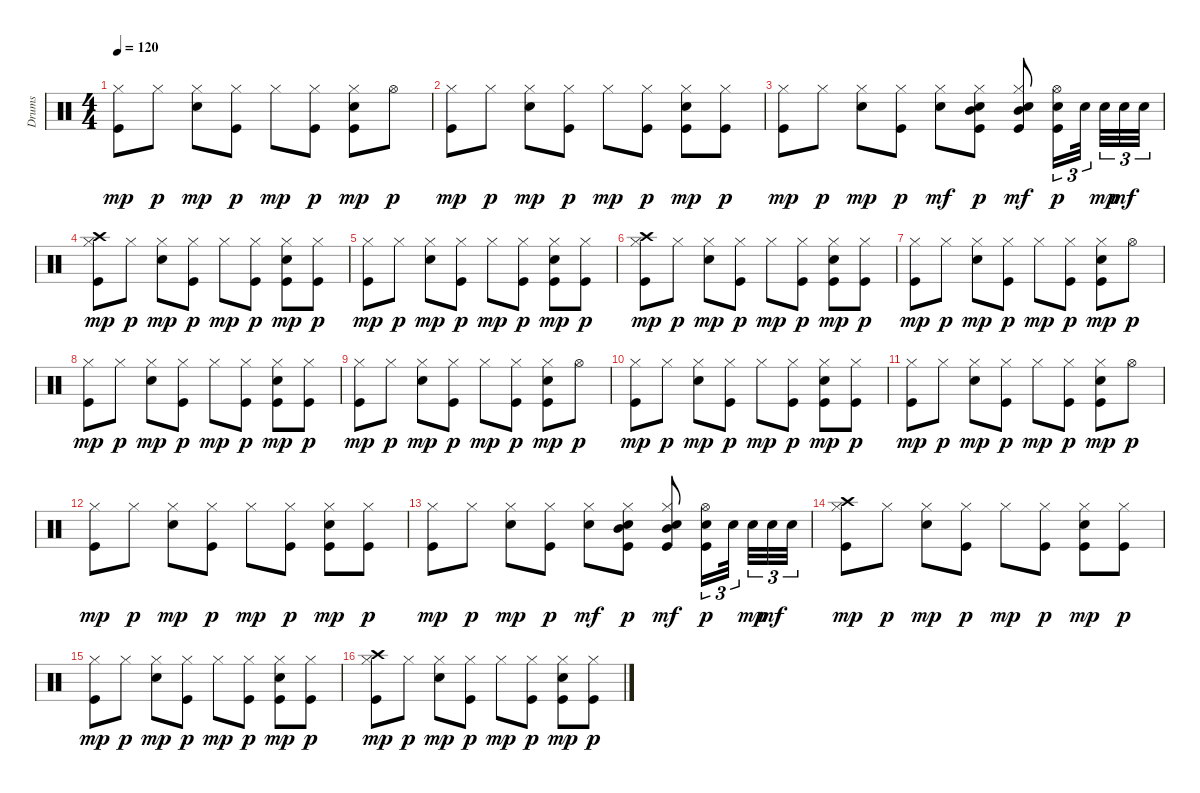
\track ("Drums" "Drums") {instrument percussion}
\staff {score}
\articulation defaults
\ts (4 4)
\tempo 120
\clef neutral
\ks c
("Kick (hit)" "Hi-Hat (closed)").8{dy mp} "Hi-Hat (closed)".8{dy p} ("Electric Snare (hit)" "Hi-Hat (closed)").8{dy mp} ("Kick (hit)" "Hi-Hat (closed)").8{dy p} "Hi-Hat (closed)".8{dy mp} ("Kick (hit)" "Hi-Hat (closed)").8{dy p} ("Kick (hit)" "Electric Snare (hit)" "Hi-Hat (closed)").8{dy mp} "Hi-Hat (open)".8{dy p} |
("Kick (hit)" "Hi-Hat (closed)").8{dy mp} "Hi-Hat (closed)".8{dy p} ("Electric Snare (hit)" "Hi-Hat (closed)").8{dy mp} ("Kick (hit)" "Hi-Hat (closed)").8{dy p} "Hi-Hat (closed)".8{dy mp} ("Kick (hit)" "Hi-Hat (closed)").8{dy p} ("Kick (hit)" "Electric Snare (hit)" "Hi-Hat (closed)").8{dy mp} ("Kick (hit)" "Hi-Hat (closed)").8{dy p} |
("Kick (hit)" "Hi-Hat (closed)").8{dy mp} "Hi-Hat (closed)".8{dy p} ("Electric Snare (hit)" "Hi-Hat (closed)").8{dy mp} ("Kick (hit)" "Hi-Hat (closed)").8{dy p} ("Hi-Hat (closed)" "Electric Snare (hit)").8{dy mf} ("Kick (hit)" "Electric Snare (hit)" "Hi-Hat (closed)" "Mid Tom (hit)").8{dy p} ("Kick (hit)" "Electric Snare (hit)" "Hi-Hat (closed)" "Mid Tom (hit)").8{dy mf} ("Kick (hit)" "Electric Snare (hit)" "Hi-Hat (open)").16{tu (3 2) dy p} "Electric Snare (hit)".32{tu (3 2) beam splitsecondary} "Electric Snare (hit)".32{tu (3 2) dy mp} "Electric Snare (hit)".32{tu (3 2) dy mf} "Electric Snare (hit)".32{tu (3 2)} |
("Kick (hit)" "Hi-Hat (closed)" "Crash high (hit)").8{dy mp} "Hi-Hat (closed)".8{dy p} ("Electric Snare (hit)" "Hi-Hat (closed)").8{dy mp} ("Kick (hit)" "Hi-Hat (closed)").8{dy p} "Hi-Hat (closed)".8{dy mp} ("Kick (hit)" "Hi-Hat (closed)").8{dy p} ("Kick (hit)" "Electric Snare (hit)" "Hi-Hat (closed)").8{dy mp} ("Kick (hit)" "Hi-Hat (closed)").8{dy p} |
("Kick (hit)" "Hi-Hat (closed)").8{dy mp} "Hi-Hat (closed)".8{dy p} ("Electric Snare (hit)" "Hi-Hat (closed)").8{dy mp} ("Kick (hit)" "Hi-Hat (closed)").8{dy p} "Hi-Hat (closed)".8{dy mp} ("Kick (hit)" "Hi-Hat (closed)").8{dy p} ("Kick (hit)" "Electric Snare (hit)" "Hi-Hat (closed)").8{dy mp} ("Kick (hit)" "Hi-Hat (closed)").8{dy p} |
("Kick (hit)" "Hi-Hat (closed)" "Crash high (hit)").8{dy mp} "Hi-Hat (closed)".8{dy p} ("Electric Snare (hit)" "Hi-Hat (closed)").8{dy mp} ("Kick (hit)" "Hi-Hat (closed)").8{dy p} "Hi-Hat (closed)".8{dy mp} ("Kick (hit)" "Hi-Hat (closed)").8{dy p} ("Kick (hit)" "Electric Snare (hit)" "Hi-Hat (closed)").8{dy mp} ("Kick (hit)" "Hi-Hat (closed)").8{dy p} |
("Kick (hit)" "Hi-Hat (closed)").8{dy mp} "Hi-Hat (closed)".8{dy p} ("Electric Snare (hit)" "Hi-Hat (closed)").8{dy mp} ("Kick (hit)" "Hi-Hat (closed)").8{dy p} "Hi-Hat (closed)".8{dy mp} ("Kick (hit)" "Hi-Hat (closed)").8{dy p} ("Kick (hit)" "Electric Snare (hit)" "Hi-Hat (closed)").8{dy mp} "Hi-Hat (open)".8{dy p} |
("Kick (hit)" "Hi-Hat (closed)").8{dy mp} "Hi-Hat (closed)".8{dy p} ("Electric Snare (hit)" "Hi-Hat (closed)").8{dy mp} ("Kick (hit)" "Hi-Hat (closed)").8{dy p} "Hi-Hat (closed)".8{dy mp} ("Kick (hit)" "Hi-Hat (closed)").8{dy p} ("Kick (hit)" "Electric Snare (hit)" "Hi-Hat (closed)").8{dy mp} ("Kick (hit)" "Hi-Hat (closed)").8{dy p} |
("Kick (hit)" "Hi-Hat (closed)").8{dy mp} "Hi-Hat (closed)".8{dy p} ("Electric Snare (hit)" "Hi-Hat (closed)").8{dy mp} ("Kick (hit)" "Hi-Hat (closed)").8{dy p} "Hi-Hat (closed)".8{dy mp} ("Kick (hit)" "Hi-Hat (closed)").8{dy p} ("Kick (hit)" "Electric Snare (hit)" "Hi-Hat (closed)").8{dy mp} "Hi-Hat (open)".8{dy p} |
("Kick (hit)" "Hi-Hat (closed)").8{dy mp} "Hi-Hat (closed)".8{dy p} ("Electric Snare (hit)" "Hi-Hat (closed)").8{dy mp} ("Kick (hit)" "Hi-Hat (closed)").8{dy p} "Hi-Hat (closed)".8{dy mp} ("Kick (hit)" "Hi-Hat (closed)").8{dy p} ("Kick (hit)" "Electric Snare (hit)" "Hi-Hat (closed)").8{dy mp} ("Kick (hit)" "Hi-Hat (closed)").8{dy p} |
("Kick (hit)" "Hi-Hat (closed)").8{dy mp} "Hi-Hat (closed)".8{dy p} ("Electric Snare (hit)" "Hi-Hat (closed)").8{dy mp} ("Kick (hit)" "Hi-Hat (closed)").8{dy p} "Hi-Hat (closed)".8{dy mp} ("Kick (hit)" "Hi-Hat (closed)").8{dy p} ("Kick (hit)" "Electric Snare (hit)" "Hi-Hat (closed)").8{dy mp} "Hi-Hat (open)".8{dy p} |
("Kick (hit)" "Hi-Hat (closed)").8{dy mp} "Hi-Hat (closed)".8{dy p} ("Electric Snare (hit)" "Hi-Hat (closed)").8{dy mp} ("Kick (hit)" "Hi-Hat (closed)").8{dy p} "Hi-Hat (closed)".8{dy mp} ("Kick (hit)" "Hi-Hat (closed)").8{dy p} ("Kick (hit)" "Electric Snare (hit)" "Hi-Hat (closed)").8{dy mp} ("Kick (hit)" "Hi-Hat (closed)").8{dy p} |
("Kick (hit)" "Hi-Hat (closed)").8{dy mp} "Hi-Hat (closed)".8{dy p} ("Electric Snare (hit)" "Hi-Hat (closed)").8{dy mp} ("Kick (hit)" "Hi-Hat (closed)").8{dy p} ("Hi-Hat (closed)" "Electric Snare (hit)").8{dy mf} ("Kick (hit)" "Electric Snare (hit)" "Hi-Hat (closed)" "Mid Tom (hit)").8{dy p} ("Kick (hit)" "Electric Snare (hit)" "Hi-Hat (closed)" "Mid Tom (hit)").8{dy mf} ("Kick (hit)" "Electric Snare (hit)" "Hi-Hat (open)").16{tu (3 2) dy p} "Electric Snare (hit)".32{tu (3 2) beam splitsecondary} "Electric Snare (hit)".32{tu (3 2) dy mp} "Electric Snare (hit)".32{tu (3 2) dy mf} "Electric Snare (hit)".32{tu (3 2)} |
("Kick (hit)" "Hi-Hat (closed)" "Crash high (hit)").8{dy mp} "Hi-Hat (closed)".8{dy p} ("Electric Snare (hit)" "Hi-Hat (closed)").8{dy mp} ("Kick (hit)" "Hi-Hat (closed)").8{dy p} "Hi-Hat (closed)".8{dy mp} ("Kick (hit)" "Hi-Hat (closed)").8{dy p} ("Kick (hit)" "Electric Snare (hit)" "Hi-Hat (closed)").8{dy mp} ("Kick (hit)" "Hi-Hat (closed)").8{dy p} |
("Kick (hit)" "Hi-Hat (closed)").8{dy mp} "Hi-Hat (closed)".8{dy p} ("Electric Snare (hit)" "Hi-Hat (closed)").8{dy mp} ("Kick (hit)" "Hi-Hat (closed)").8{dy p} "Hi-Hat (closed)".8{dy mp} ("Kick (hit)" "Hi-Hat (closed)").8{dy p} ("Kick (hit)" "Electric Snare (hit)" "Hi-Hat (closed)").8{dy mp} ("Kick (hit)" "Hi-Hat (closed)").8{dy p} |
("Kick (hit)" "Hi-Hat (closed)" "Crash high (hit)").8{dy mp} "Hi-Hat (closed)".8{dy p} ("Electric Snare (hit)" "Hi-Hat (closed)").8{dy mp} ("Kick (hit)" "Hi-Hat (closed)").8{dy p} "Hi-Hat (closed)".8{dy mp} ("Kick (hit)" "Hi-Hat (closed)").8{dy p} ("Kick (hit)" "Electric Snare (hit)" "Hi-Hat (closed)").8{dy mp} ("Kick (hit)" "Hi-Hat (closed)").8{dy p}
